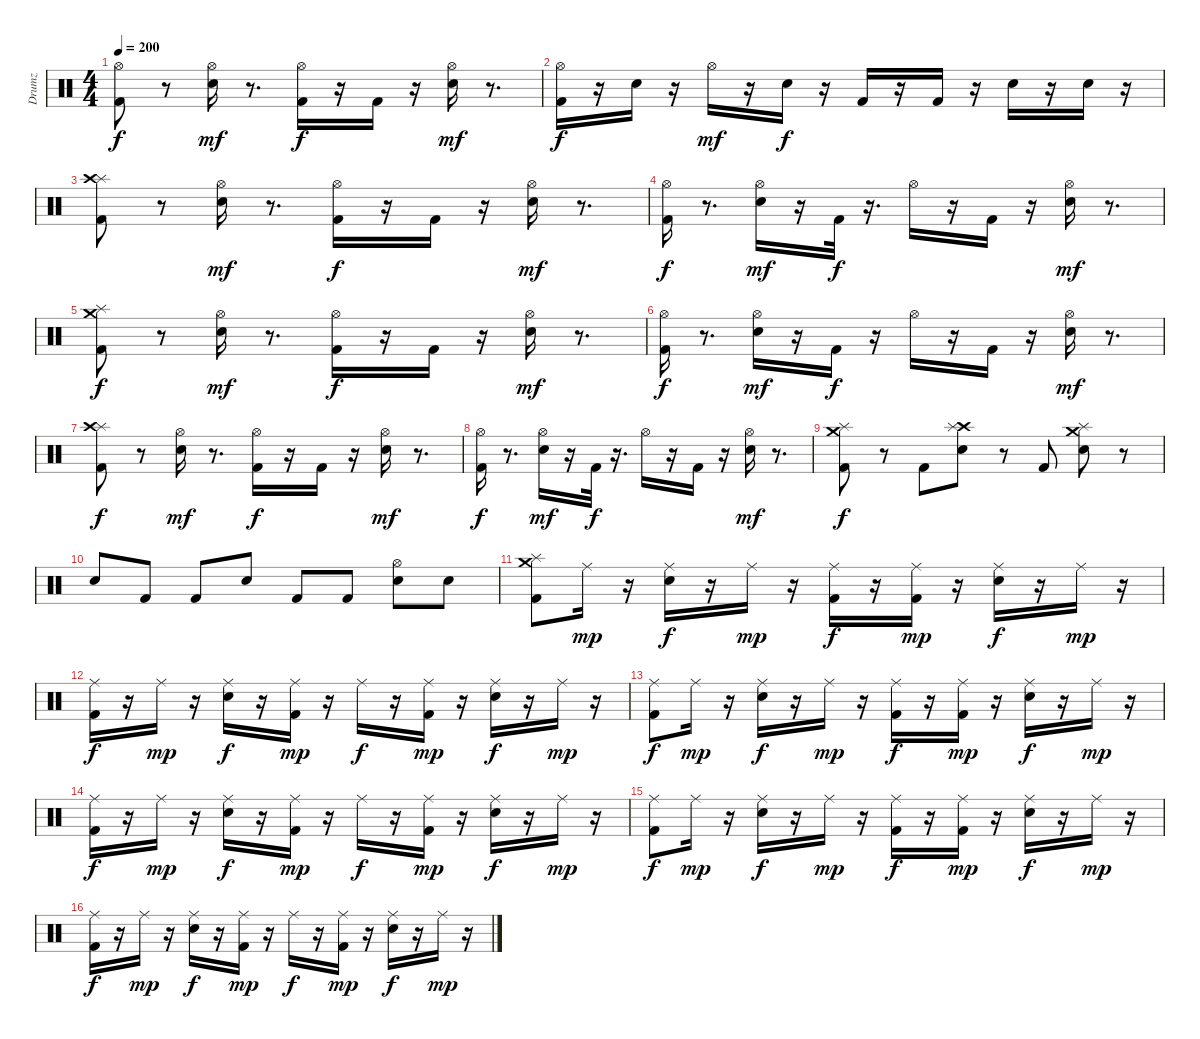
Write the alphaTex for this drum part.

\track ("Drumz" "Drumz") {instrument percussion}
\staff {score}
\articulation defaults
\ts (4 4)
\tempo 200
\clef neutral
\ks c
("Kick (hit) 2" "Hi-Hat (open)").8{dy f} r.8 ("Snare (hit) 2" "Hi-Hat (open)").16{dy mf} r.8{d} ("Hi-Hat (open)" "Kick (hit) 2").16{dy f} r.16 "Kick (hit) 2".16 r.16 ("Snare (hit) 2" "Hi-Hat (open)").16{dy mf} r.8{d} |
("Kick (hit) 2" "Hi-Hat (open)").16{dy f} r.16 "Snare (hit) 2".16 r.16 "Hi-Hat (open)".16{dy mf} r.16 "Snare (hit) 2".16{dy f} r.16 "Kick (hit) 2".16 r.16 "Kick (hit) 2".16 r.16 "Snare (hit) 2".16 r.16 "Snare (hit) 2".16 r.16 |
("Kick (hit) 2" "Splash (hit)" "Crash high (hit)").8 r.8 ("Snare (hit) 2" "Hi-Hat (open)").16{dy mf} r.8{d} ("Hi-Hat (open)" "Kick (hit) 2").16{dy f} r.16 "Kick (hit) 2".16 r.16 ("Snare (hit) 2" "Hi-Hat (open)").16{dy mf} r.8{d} |
("Kick (hit) 2" "Hi-Hat (open)").16{dy f} r.8{d} ("Snare (hit) 2" "Hi-Hat (open)").16{dy mf} r.16 "Kick (hit) 2".32{dy f} r.16{d} "Hi-Hat (open)".16 r.16 "Kick (hit) 2".16 r.16 ("Snare (hit) 2" "Hi-Hat (open)").16{dy mf} r.8{d} |
("Kick (hit) 2" "Splash (hit)" "Crash medium (hit)").8{dy f} r.8 ("Snare (hit) 2" "Hi-Hat (open)").16{dy mf} r.8{d} ("Hi-Hat (open)" "Kick (hit) 2").16{dy f} r.16 "Kick (hit) 2".16 r.16 ("Snare (hit) 2" "Hi-Hat (open)").16{dy mf} r.8{d} |
("Kick (hit) 2" "Hi-Hat (open)").16{dy f} r.8{d} ("Snare (hit) 2" "Hi-Hat (open)").16{dy mf} r.16 "Kick (hit) 2".16{dy f} r.16 "Hi-Hat (open)".16 r.16 "Kick (hit) 2".16 r.16 ("Snare (hit) 2" "Hi-Hat (open)").16{dy mf} r.8{d} |
("Kick (hit) 2" "Splash (hit)" "Crash high (hit)").8{dy f} r.8 ("Snare (hit) 2" "Hi-Hat (open)").16{dy mf} r.8{d} ("Hi-Hat (open)" "Kick (hit) 2").16{dy f} r.16 "Kick (hit) 2".16 r.16 ("Snare (hit) 2" "Hi-Hat (open)").16{dy mf} r.8{d} |
("Kick (hit) 2" "Hi-Hat (open)").16{dy f} r.8{d} ("Snare (hit) 2" "Hi-Hat (open)").16{dy mf} r.16 "Kick (hit) 2".32{dy f} r.16{d} "Hi-Hat (open)".16 r.16 "Kick (hit) 2".16 r.16 ("Snare (hit) 2" "Hi-Hat (open)").16{dy mf} r.8{d} |
("Kick (hit) 2" "Crash medium (hit)" "Splash (hit)").8{dy f} r.8 "Kick (hit) 2".8 ("Snare (hit) 2" "Crash high (hit)" "Splash (hit)").8 r.8 "Kick (hit) 2".8 ("Snare (hit) 2" "Crash medium (hit)" "Splash (hit)").8 r.8 |
"Snare (hit) 2".8 "Kick (hit) 2".8 "Kick (hit) 2".8 "Snare (hit) 2".8 "Kick (hit) 2".8 "Kick (hit) 2".8 ("Hi-Hat (open)" "Snare (hit) 2").8 "Snare (hit) 2".8 |
("Kick (hit) 2" "Crash medium (hit)" "Splash (hit)").8 "Ride (middle)".16{dy mp} r.16 ("Snare (hit) 2" "Ride (middle)").16{dy f} r.16 "Ride (middle)".16{dy mp} r.16 ("Kick (hit) 2" "Ride (middle)").16{dy f} r.16 ("Kick (hit) 2" "Ride (middle)").16{dy mp} r.16 ("Snare (hit) 2" "Ride (middle)").16{dy f} r.16 "Ride (middle)".16{dy mp} r.16 |
("Kick (hit) 2" "Ride (middle)").16{dy f} r.16 "Ride (middle)".16{dy mp} r.16 ("Snare (hit) 2" "Ride (middle)").16{dy f} r.16 ("Kick (hit) 2" "Ride (middle)").16{dy mp} r.16 "Ride (middle)".16{dy f} r.16 ("Kick (hit) 2" "Ride (middle)").16{dy mp} r.16 ("Snare (hit) 2" "Ride (middle)").16{dy f} r.16 "Ride (middle)".16{dy mp} r.16 |
("Kick (hit) 2" "Ride (middle)").8{dy f} "Ride (middle)".16{dy mp} r.16 ("Snare (hit) 2" "Ride (middle)").16{dy f} r.16 "Ride (middle)".16{dy mp} r.16 ("Kick (hit) 2" "Ride (middle)").16{dy f} r.16 ("Kick (hit) 2" "Ride (middle)").16{dy mp} r.16 ("Snare (hit) 2" "Ride (middle)").16{dy f} r.16 "Ride (middle)".16{dy mp} r.16 |
("Kick (hit) 2" "Ride (middle)").16{dy f} r.16 "Ride (middle)".16{dy mp} r.16 ("Snare (hit) 2" "Ride (middle)").16{dy f} r.16 ("Kick (hit) 2" "Ride (middle)").16{dy mp} r.16 "Ride (middle)".16{dy f} r.16 ("Kick (hit) 2" "Ride (middle)").16{dy mp} r.16 ("Snare (hit) 2" "Ride (middle)").16{dy f} r.16 "Ride (middle)".16{dy mp} r.16 |
("Kick (hit) 2" "Ride (middle)").8{dy f} "Ride (middle)".16{dy mp} r.16 ("Snare (hit) 2" "Ride (middle)").16{dy f} r.16 "Ride (middle)".16{dy mp} r.16 ("Kick (hit) 2" "Ride (middle)").16{dy f} r.16 ("Kick (hit) 2" "Ride (middle)").16{dy mp} r.16 ("Snare (hit) 2" "Ride (middle)").16{dy f} r.16 "Ride (middle)".16{dy mp} r.16 |
("Kick (hit) 2" "Ride (middle)").16{dy f} r.16 "Ride (middle)".16{dy mp} r.16 ("Snare (hit) 2" "Ride (middle)").16{dy f} r.16 ("Kick (hit) 2" "Ride (middle)").16{dy mp} r.16 "Ride (middle)".16{dy f} r.16 ("Kick (hit) 2" "Ride (middle)").16{dy mp} r.16 ("Snare (hit) 2" "Ride (middle)").16{dy f} r.16 "Ride (middle)".16{dy mp} r.16
